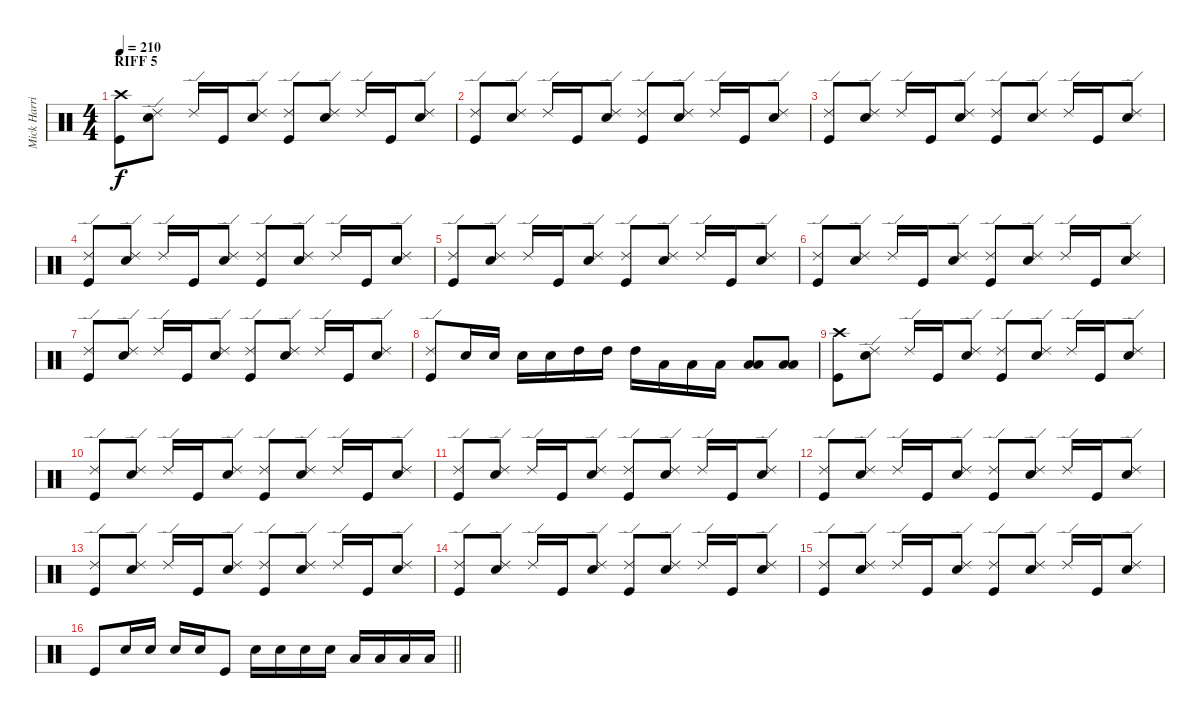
\track ("Mick Harris" "Mick Harri") {instrument percussion}
\staff {score}
\articulation defaults
\ts (4 4)
\section ("" "RIFF 5")
\tempo 210
\clef neutral
\ks c
("Crash high (hit)" "Kick (hit)").8{dy f} ("Ride (edge) 2" "Snare (hit) 2").8 "Ride (edge) 2".16 "Kick (hit)".16 ("Ride (edge) 2" "Snare (hit) 2").8 ("Ride (edge) 2" "Kick (hit)").8 ("Ride (edge) 2" "Snare (hit) 2").8 "Ride (edge) 2".16 "Kick (hit)".16 ("Ride (edge) 2" "Snare (hit) 2").8 |
("Ride (edge) 2" "Kick (hit)").8 ("Ride (edge) 2" "Snare (hit) 2").8 "Ride (edge) 2".16 "Kick (hit)".16 ("Ride (edge) 2" "Snare (hit) 2").8 ("Ride (edge) 2" "Kick (hit)").8 ("Ride (edge) 2" "Snare (hit) 2").8 "Ride (edge) 2".16 "Kick (hit)".16 ("Ride (edge) 2" "Snare (hit) 2").8 |
("Ride (edge) 2" "Kick (hit)").8 ("Ride (edge) 2" "Snare (hit) 2").8 "Ride (edge) 2".16 "Kick (hit)".16 ("Ride (edge) 2" "Snare (hit) 2").8 ("Ride (edge) 2" "Kick (hit)").8 ("Ride (edge) 2" "Snare (hit) 2").8 "Ride (edge) 2".16 "Kick (hit)".16 ("Ride (edge) 2" "Snare (hit) 2").8 |
("Ride (edge) 2" "Kick (hit)").8 ("Ride (edge) 2" "Snare (hit) 2").8 "Ride (edge) 2".16 "Kick (hit)".16 ("Ride (edge) 2" "Snare (hit) 2").8 ("Ride (edge) 2" "Kick (hit)").8 ("Ride (edge) 2" "Snare (hit) 2").8 "Ride (edge) 2".16 "Kick (hit)".16 ("Ride (edge) 2" "Snare (hit) 2").8 |
("Ride (edge) 2" "Kick (hit)").8 ("Ride (edge) 2" "Snare (hit) 2").8 "Ride (edge) 2".16 "Kick (hit)".16 ("Ride (edge) 2" "Snare (hit) 2").8 ("Ride (edge) 2" "Kick (hit)").8 ("Ride (edge) 2" "Snare (hit) 2").8 "Ride (edge) 2".16 "Kick (hit)".16 ("Ride (edge) 2" "Snare (hit) 2").8 |
("Ride (edge) 2" "Kick (hit)").8 ("Ride (edge) 2" "Snare (hit) 2").8 "Ride (edge) 2".16 "Kick (hit)".16 ("Ride (edge) 2" "Snare (hit) 2").8 ("Ride (edge) 2" "Kick (hit)").8 ("Ride (edge) 2" "Snare (hit) 2").8 "Ride (edge) 2".16 "Kick (hit)".16 ("Ride (edge) 2" "Snare (hit) 2").8 |
("Ride (edge) 2" "Kick (hit)").8 ("Ride (edge) 2" "Snare (hit) 2").8 "Ride (edge) 2".16 "Kick (hit)".16 ("Ride (edge) 2" "Snare (hit) 2").8 ("Ride (edge) 2" "Kick (hit)").8 ("Ride (edge) 2" "Snare (hit) 2").8 "Ride (edge) 2".16 "Kick (hit)".16 ("Ride (edge) 2" "Snare (hit) 2").8 |
("Ride (edge) 2" "Kick (hit)").8 "Snare (hit) 2".16 "Snare (hit) 2".16 "Snare (hit) 2".16 "Snare (hit) 2".16 "High Tom (hit)".16 "High Tom (hit)".16 "High Tom (hit)".16 "Low Tom (hit)".16 "Low Tom (hit)".16 "Low Tom (hit)".16 ("Low Floor Tom (hit)" "Low Tom (hit)").8 ("Low Floor Tom (hit)" "Low Tom (hit)").8 |
("Crash high (hit)" "Kick (hit)").8 ("Ride (edge) 2" "Snare (hit) 2").8 "Ride (edge) 2".16 "Kick (hit)".16 ("Ride (edge) 2" "Snare (hit) 2").8 ("Ride (edge) 2" "Kick (hit)").8 ("Ride (edge) 2" "Snare (hit) 2").8 "Ride (edge) 2".16 "Kick (hit)".16 ("Ride (edge) 2" "Snare (hit) 2").8 |
("Ride (edge) 2" "Kick (hit)").8 ("Ride (edge) 2" "Snare (hit) 2").8 "Ride (edge) 2".16 "Kick (hit)".16 ("Ride (edge) 2" "Snare (hit) 2").8 ("Ride (edge) 2" "Kick (hit)").8 ("Ride (edge) 2" "Snare (hit) 2").8 "Ride (edge) 2".16 "Kick (hit)".16 ("Ride (edge) 2" "Snare (hit) 2").8 |
("Ride (edge) 2" "Kick (hit)").8 ("Ride (edge) 2" "Snare (hit) 2").8 "Ride (edge) 2".16 "Kick (hit)".16 ("Ride (edge) 2" "Snare (hit) 2").8 ("Ride (edge) 2" "Kick (hit)").8 ("Ride (edge) 2" "Snare (hit) 2").8 "Ride (edge) 2".16 "Kick (hit)".16 ("Ride (edge) 2" "Snare (hit) 2").8 |
("Ride (edge) 2" "Kick (hit)").8 ("Ride (edge) 2" "Snare (hit) 2").8 "Ride (edge) 2".16 "Kick (hit)".16 ("Ride (edge) 2" "Snare (hit) 2").8 ("Ride (edge) 2" "Kick (hit)").8 ("Ride (edge) 2" "Snare (hit) 2").8 "Ride (edge) 2".16 "Kick (hit)".16 ("Ride (edge) 2" "Snare (hit) 2").8 |
("Ride (edge) 2" "Kick (hit)").8 ("Ride (edge) 2" "Snare (hit) 2").8 "Ride (edge) 2".16 "Kick (hit)".16 ("Ride (edge) 2" "Snare (hit) 2").8 ("Ride (edge) 2" "Kick (hit)").8 ("Ride (edge) 2" "Snare (hit) 2").8 "Ride (edge) 2".16 "Kick (hit)".16 ("Ride (edge) 2" "Snare (hit) 2").8 |
("Ride (edge) 2" "Kick (hit)").8 ("Ride (edge) 2" "Snare (hit) 2").8 "Ride (edge) 2".16 "Kick (hit)".16 ("Ride (edge) 2" "Snare (hit) 2").8 ("Ride (edge) 2" "Kick (hit)").8 ("Ride (edge) 2" "Snare (hit) 2").8 "Ride (edge) 2".16 "Kick (hit)".16 ("Ride (edge) 2" "Snare (hit) 2").8 |
("Ride (edge) 2" "Kick (hit)").8 ("Ride (edge) 2" "Snare (hit) 2").8 "Ride (edge) 2".16 "Kick (hit)".16 ("Ride (edge) 2" "Snare (hit) 2").8 ("Ride (edge) 2" "Kick (hit)").8 ("Ride (edge) 2" "Snare (hit) 2").8 "Ride (edge) 2".16 "Kick (hit)".16 ("Ride (edge) 2" "Snare (hit) 2").8 |
\barLineRight lightlight "Kick (hit)".8 "Snare (hit) 2".16 "Snare (hit) 2".16 "Snare (hit) 2".16 "Snare (hit) 2".16 "Kick (hit)".8 "Snare (hit) 2".16 "Snare (hit) 2".16 "Snare (hit) 2".16 "Snare (hit) 2".16 "Low Tom (hit)".16 "Low Tom (hit)".16 "Low Tom (hit)".16 "Low Tom (hit)".16
